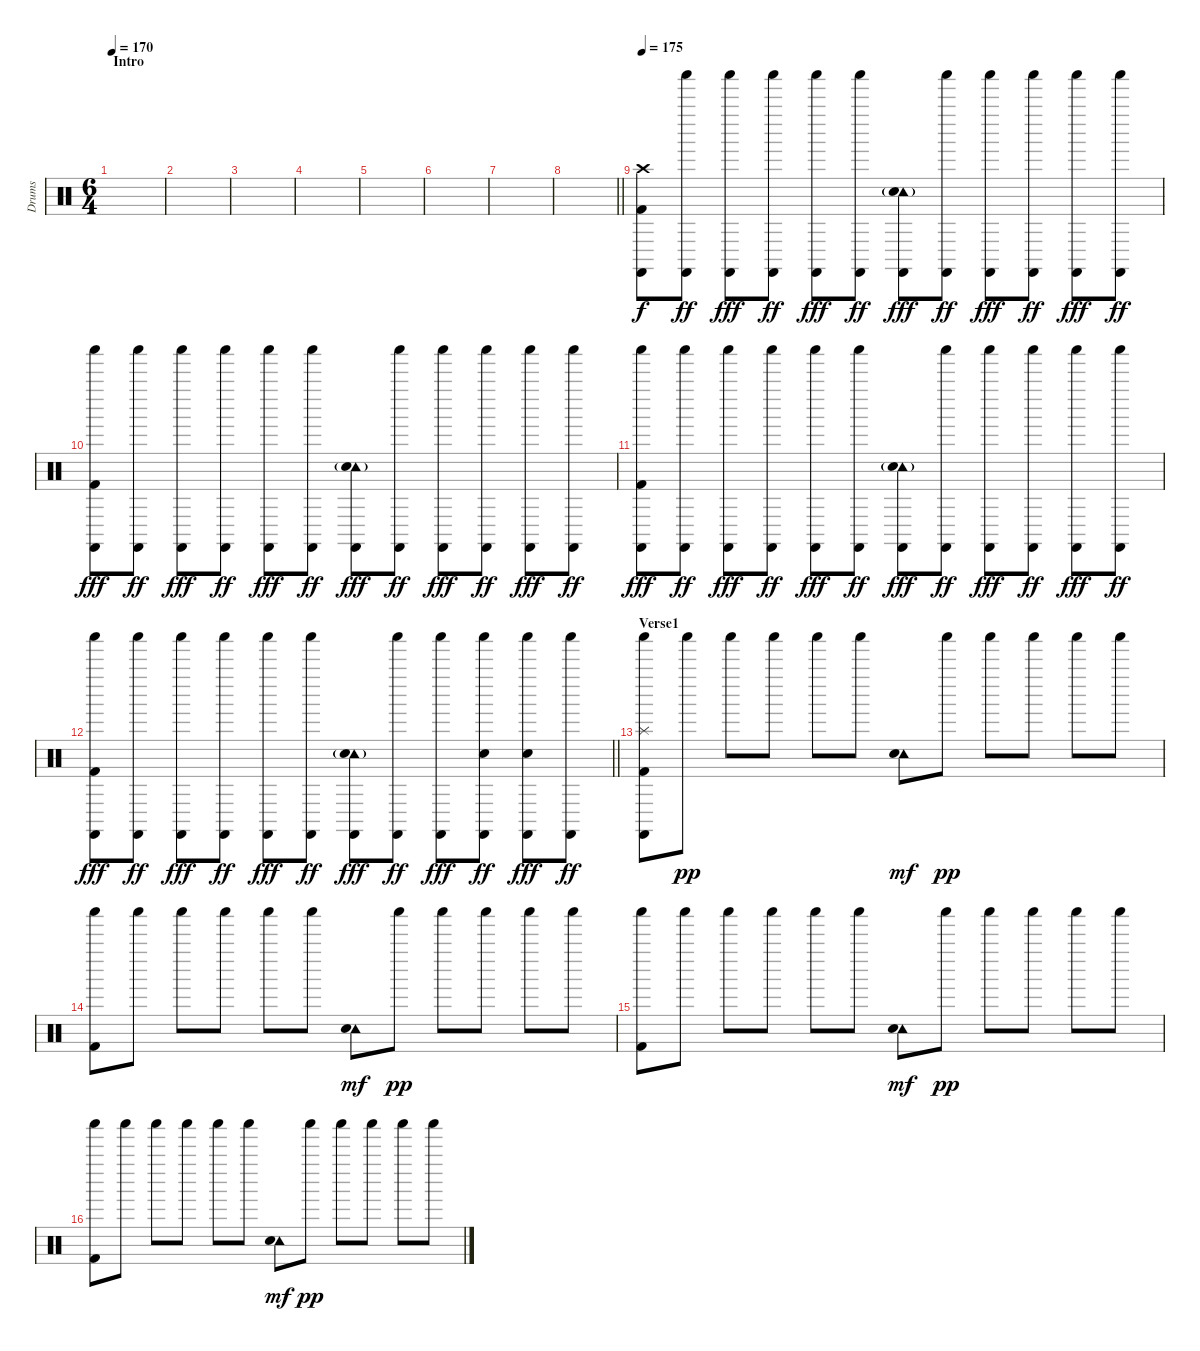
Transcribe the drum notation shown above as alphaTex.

\track ("Drums" "Drums") {instrument percussion}
\staff {score}
\articulation defaults
\ts (6 4)
\section ("" "Intro")
\tempo 170
\clef neutral
\ks c
|
|
|
|
|
|
|
\barLineRight lightlight
|
\tempo 175
("Crash high (hit)" "Castanets (hit)" "Kick (hit) 2").8 ("Shaker (hit)" "Castanets (hit)").8{dy ff} ("Shaker (hit)" "Castanets (hit)").8{dy fff} ("Shaker (hit)" "Castanets (hit)").8{dy ff} ("Shaker (hit)" "Castanets (hit)").8{dy fff} ("Shaker (hit)" "Castanets (hit)").8{dy ff} ("Tambourine (hit)"{g} "Snare (hit) 2" "Castanets (hit)").8{dy fff} ("Shaker (hit)" "Castanets (hit)").8{dy ff} ("Shaker (hit)" "Castanets (hit)").8{dy fff} ("Shaker (hit)" "Castanets (hit)").8{dy ff} ("Shaker (hit)" "Castanets (hit)").8{dy fff} ("Shaker (hit)" "Castanets (hit)").8{dy ff} |
("Shaker (hit)" "Castanets (hit)" "Kick (hit) 2").8{dy fff} ("Shaker (hit)" "Castanets (hit)").8{dy ff} ("Shaker (hit)" "Castanets (hit)").8{dy fff} ("Shaker (hit)" "Castanets (hit)").8{dy ff} ("Shaker (hit)" "Castanets (hit)").8{dy fff} ("Shaker (hit)" "Castanets (hit)").8{dy ff} ("Tambourine (hit)"{g} "Snare (hit) 2" "Castanets (hit)").8{dy fff} ("Shaker (hit)" "Castanets (hit)").8{dy ff} ("Shaker (hit)" "Castanets (hit)").8{dy fff} ("Shaker (hit)" "Castanets (hit)").8{dy ff} ("Shaker (hit)" "Castanets (hit)").8{dy fff} ("Shaker (hit)" "Castanets (hit)").8{dy ff} |
("Shaker (hit)" "Castanets (hit)" "Kick (hit) 2").8{dy fff} ("Shaker (hit)" "Castanets (hit)").8{dy ff} ("Shaker (hit)" "Castanets (hit)").8{dy fff} ("Shaker (hit)" "Castanets (hit)").8{dy ff} ("Shaker (hit)" "Castanets (hit)").8{dy fff} ("Shaker (hit)" "Castanets (hit)").8{dy ff} ("Tambourine (hit)"{g} "Snare (hit) 2" "Castanets (hit)").8{dy fff} ("Shaker (hit)" "Castanets (hit)").8{dy ff} ("Shaker (hit)" "Castanets (hit)").8{dy fff} ("Shaker (hit)" "Castanets (hit)").8{dy ff} ("Shaker (hit)" "Castanets (hit)").8{dy fff} ("Shaker (hit)" "Castanets (hit)").8{dy ff} |
\barLineRight lightlight
("Shaker (hit)" "Castanets (hit)" "Kick (hit) 2").8{dy fff} ("Shaker (hit)" "Castanets (hit)").8{dy ff} ("Shaker (hit)" "Castanets (hit)").8{dy fff} ("Shaker (hit)" "Castanets (hit)").8{dy ff} ("Shaker (hit)" "Castanets (hit)").8{dy fff} ("Shaker (hit)" "Castanets (hit)").8{dy ff} ("Tambourine (hit)"{g} "Snare (hit) 2" "Castanets (hit)").8{dy fff} ("Shaker (hit)" "Castanets (hit)").8{dy ff} ("Shaker (hit)" "Castanets (hit)").8{dy fff} ("Shaker (hit)" "Snare (hit) 2" "Castanets (hit)").8{dy ff} ("Shaker (hit)" "Snare (hit) 2" "Castanets (hit)").8{dy fff} ("Shaker (hit)" "Castanets (hit)").8{dy ff} |
\section ("" "Verse1")
("Splash (hit)" "Shaker (hit)" "Castanets (hit)" "Kick (hit) 2").8 "Shaker (hit)".8{dy pp} "Shaker (hit)".8 "Shaker (hit)".8 "Shaker (hit)".8 "Shaker (hit)".8 ("Tambourine (hit)" "Snare (hit) 2").8{dy mf} "Shaker (hit)".8{dy pp} "Shaker (hit)".8 "Shaker (hit)".8 "Shaker (hit)".8 "Shaker (hit)".8 |
("Shaker (hit)" "Kick (hit) 2").8 "Shaker (hit)".8 "Shaker (hit)".8 "Shaker (hit)".8 "Shaker (hit)".8 "Shaker (hit)".8 ("Tambourine (hit)" "Snare (hit) 2").8{dy mf} "Shaker (hit)".8{dy pp} "Shaker (hit)".8 "Shaker (hit)".8 "Shaker (hit)".8 "Shaker (hit)".8 |
("Shaker (hit)" "Kick (hit) 2").8 "Shaker (hit)".8 "Shaker (hit)".8 "Shaker (hit)".8 "Shaker (hit)".8 "Shaker (hit)".8 ("Tambourine (hit)" "Snare (hit) 2").8{dy mf} "Shaker (hit)".8{dy pp} "Shaker (hit)".8 "Shaker (hit)".8 "Shaker (hit)".8 "Shaker (hit)".8 |
("Shaker (hit)" "Kick (hit) 2").8 "Shaker (hit)".8 "Shaker (hit)".8 "Shaker (hit)".8 "Shaker (hit)".8 "Shaker (hit)".8 ("Tambourine (hit)" "Snare (hit) 2").8{dy mf} "Shaker (hit)".8{dy pp} "Shaker (hit)".8 "Shaker (hit)".8 "Shaker (hit)".8 "Shaker (hit)".8
